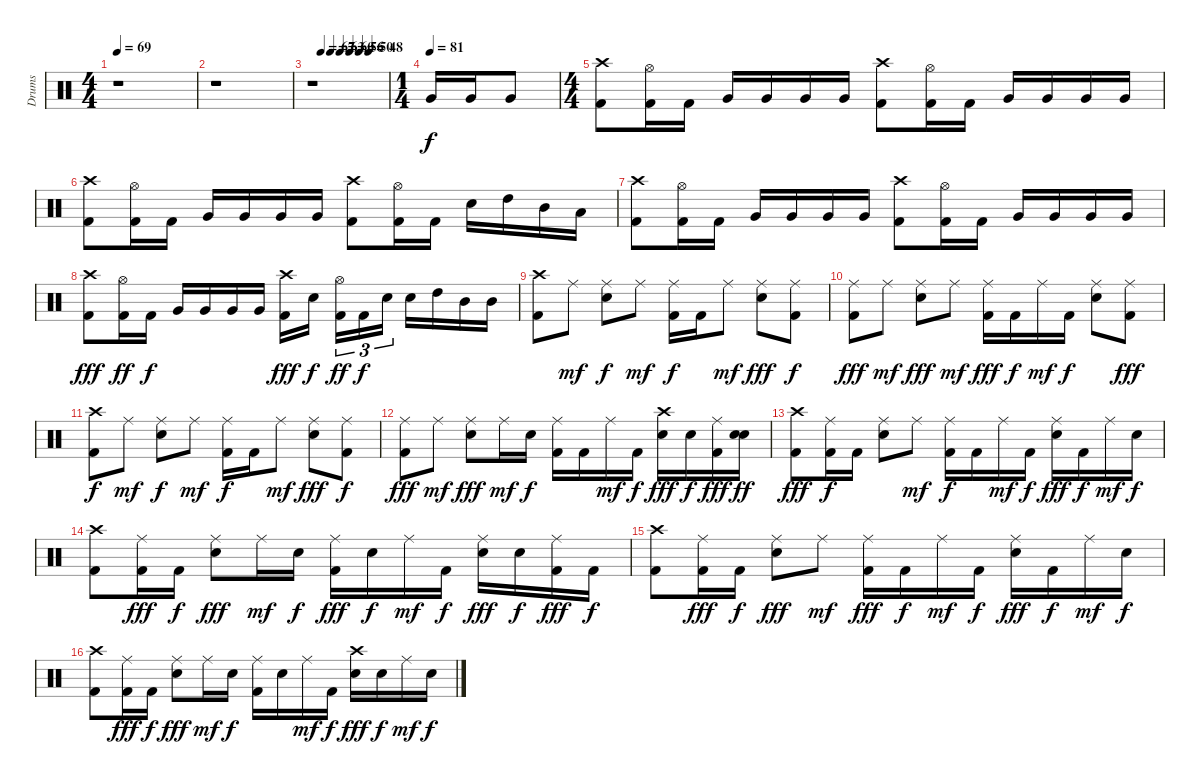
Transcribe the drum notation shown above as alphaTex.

\track ("Drums" "Drums") {instrument percussion}
\staff {score}
\articulation defaults
\ts (4 4)
\tempo 69
\clef neutral
\ks c
r.1{dy f} |
r.1 |
\tempo (65 0.125)
\tempo (63 0.25)
\tempo (60 0.375)
\tempo (56 0.5)
\tempo (50 0.625)
\tempo (48 0.75)
\tempo (67 0.125)
r.1 |
\ts (1 4)
\tempo (81)
"Very Low Tom (hit)".16 "Very Low Tom (hit)".16 "Very Low Tom (hit)".8 |
\ts (4 4)
("Crash high (hit)" "Kick (hit) 2").8 ("Hi-Hat (open)" "Kick (hit) 2").16 "Kick (hit) 2".16 "Very Low Tom (hit)".16 "Very Low Tom (hit)".16 "Very Low Tom (hit)".16 "Very Low Tom (hit)".16 ("Crash high (hit)" "Kick (hit) 2").8 ("Hi-Hat (open)" "Kick (hit) 2").16 "Kick (hit) 2".16 "Very Low Tom (hit)".16 "Very Low Tom (hit)".16 "Very Low Tom (hit)".16 "Very Low Tom (hit)".16 |
("Crash high (hit)" "Kick (hit) 2").8 ("Hi-Hat (open)" "Kick (hit) 2").16 "Kick (hit) 2".16 "Very Low Tom (hit)".16 "Very Low Tom (hit)".16 "Very Low Tom (hit)".16 "Very Low Tom (hit)".16 ("Crash high (hit)" "Kick (hit) 2").8 ("Hi-Hat (open)" "Kick (hit) 2").16 "Kick (hit) 2".16 "Electric Snare (hit)".16 "High Tom (hit)".16 "Mid Tom (hit)".16 "Low Tom (hit)".16 |
("Crash high (hit)" "Kick (hit) 2").8 ("Hi-Hat (open)" "Kick (hit) 2").16 "Kick (hit) 2".16 "Very Low Tom (hit)".16 "Very Low Tom (hit)".16 "Very Low Tom (hit)".16 "Very Low Tom (hit)".16 ("Crash high (hit)" "Kick (hit) 2").8 ("Hi-Hat (open)" "Kick (hit) 2").16 "Kick (hit) 2".16 "Very Low Tom (hit)".16 "Very Low Tom (hit)".16 "Very Low Tom (hit)".16 "Very Low Tom (hit)".16 |
("Crash high (hit)" "Kick (hit) 2").8{dy fff} ("Hi-Hat (open)" "Kick (hit) 2").16{dy ff} "Kick (hit) 2".16{dy f} "Very Low Tom (hit)".16 "Very Low Tom (hit)".16 "Very Low Tom (hit)".16 "Very Low Tom (hit)".16 ("Crash high (hit)" "Kick (hit) 2").16{dy fff} "Electric Snare (hit)".16{dy f} ("Hi-Hat (open)" "Kick (hit) 2").16{tu (3 2) dy ff} "Kick (hit) 2".16{tu (3 2) dy f} "Electric Snare (hit)".16{tu (3 2)} "Electric Snare (hit)".16 "High Tom (hit)".16 "Mid Tom (hit)".16 "Mid Tom (hit)".16 |
("Crash high (hit)" "Kick (hit) 2").8 "Ride (middle)".8{dy mf} ("Ride (middle)" "Electric Snare (hit)").8{dy f} "Ride (middle)".8{dy mf} ("Ride (middle)" "Kick (hit) 2").16{dy f} "Kick (hit) 2".16 "Ride (middle)".8{dy mf} ("Ride (middle)" "Electric Snare (hit)").8{dy fff} ("Ride (middle)" "Kick (hit) 2").8{dy f} |
("Ride (middle)" "Kick (hit) 2").8{dy fff} "Ride (middle)".8{dy mf} ("Ride (middle)" "Electric Snare (hit)").8{dy fff} "Ride (middle)".8{dy mf} ("Ride (middle)" "Kick (hit) 2").16{dy fff} "Kick (hit) 2".16{dy f} "Ride (middle)".16{dy mf} "Kick (hit) 2".16{dy f} ("Ride (middle)" "Electric Snare (hit)").8 ("Ride (middle)" "Kick (hit) 2").8{dy fff} |
("Crash high (hit)" "Kick (hit) 2").8{dy f} "Ride (middle)".8{dy mf} ("Ride (middle)" "Electric Snare (hit)").8{dy f} "Ride (middle)".8{dy mf} ("Ride (middle)" "Kick (hit) 2").16{dy f} "Kick (hit) 2".16 "Ride (middle)".8{dy mf} ("Ride (middle)" "Electric Snare (hit)").8{dy fff} ("Ride (middle)" "Kick (hit) 2").8{dy f} |
("Ride (middle)" "Kick (hit) 2").8{dy fff} "Ride (middle)".8{dy mf} ("Ride (middle)" "Electric Snare (hit)").8{dy fff} "Ride (middle)".16{dy mf} "Electric Snare (hit)".16{dy f} ("Ride (middle)" "Kick (hit) 2").16 "Kick (hit) 2".16 "Ride (middle)".16{dy mf} "Kick (hit) 2".16{dy f} ("Crash high (hit)" "Electric Snare (hit)").16{dy fff} "Electric Snare (hit)".16{dy f} ("Ride (middle)" "Kick (hit) 2").16{dy fff} ("Electric Snare (hit)" "Electric Snare (hit)").16{dy ff} |
("Crash high (hit)" "Kick (hit) 2").8{dy fff} ("Ride (middle)" "Kick (hit) 2").16{dy f} "Kick (hit) 2".16 ("Ride (middle)" "Electric Snare (hit)").8 "Ride (middle)".8{dy mf} ("Ride (middle)" "Kick (hit) 2").16{dy f} "Kick (hit) 2".16 "Ride (middle)".16{dy mf} "Kick (hit) 2".16{dy f} ("Ride (middle)" "Electric Snare (hit)").16{dy fff} "Kick (hit) 2".16{dy f} "Ride (middle)".16{dy mf} "Electric Snare (hit)".16{dy f} |
("Crash high (hit)" "Kick (hit) 2").8 ("Ride (middle)" "Kick (hit) 2").16{dy fff} "Kick (hit) 2".16{dy f} ("Ride (middle)" "Electric Snare (hit)").8{dy fff} "Ride (middle)".16{dy mf} "Electric Snare (hit)".16{dy f} ("Ride (middle)" "Kick (hit) 2").16{dy fff} "Electric Snare (hit)".16{dy f} "Ride (middle)".16{dy mf} "Kick (hit) 2".16{dy f} ("Ride (middle)" "Electric Snare (hit)").16{dy fff} "Electric Snare (hit)".16{dy f} ("Ride (middle)" "Kick (hit) 2").16{dy fff} "Kick (hit) 2".16{dy f} |
("Crash high (hit)" "Kick (hit) 2").8 ("Ride (middle)" "Kick (hit) 2").16{dy fff} "Kick (hit) 2".16{dy f} ("Ride (middle)" "Electric Snare (hit)").8{dy fff} "Ride (middle)".8{dy mf} ("Ride (middle)" "Kick (hit) 2").16{dy fff} "Kick (hit) 2".16{dy f} "Ride (middle)".16{dy mf} "Kick (hit) 2".16{dy f} ("Ride (middle)" "Electric Snare (hit)").16{dy fff} "Kick (hit) 2".16{dy f} "Ride (middle)".16{dy mf} "Electric Snare (hit)".16{dy f} |
("Crash high (hit)" "Kick (hit) 2").8 ("Ride (middle)" "Kick (hit) 2").16{dy fff} "Kick (hit) 2".16{dy f} ("Ride (middle)" "Electric Snare (hit)").8{dy fff} "Ride (middle)".16{dy mf} "Electric Snare (hit)".16{dy f} ("Ride (middle)" "Kick (hit) 2").16 "Electric Snare (hit)".16 "Ride (middle)".16{dy mf} "Kick (hit) 2".16{dy f} ("Crash high (hit)" "Electric Snare (hit)").16{dy fff} "Electric Snare (hit)".16{dy f} "Ride (middle)".16{dy mf} "Electric Snare (hit)".16{dy f}
